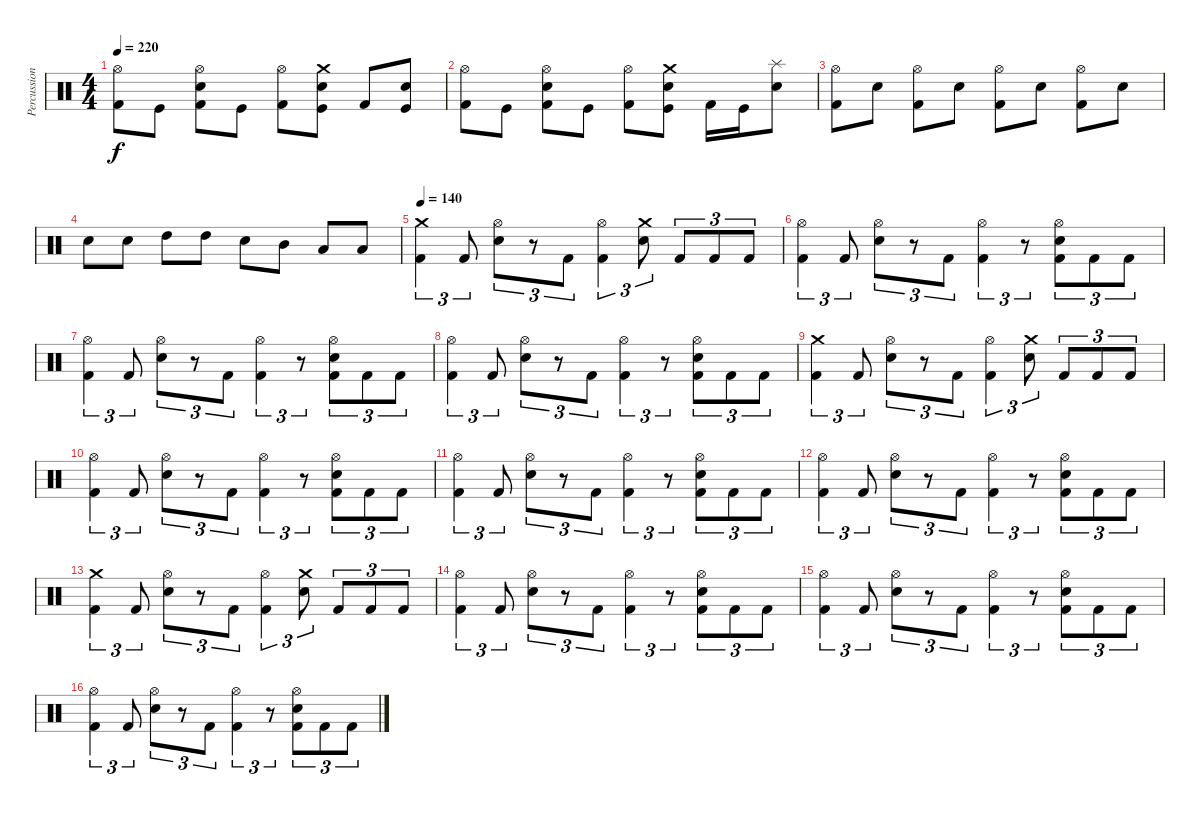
\track ("Percussions" "Percussion") {instrument percussion}
\staff {score}
\articulation defaults
\ts (4 4)
\tempo 220
\clef neutral
\ks c
("Hi-Hat (open)" "Kick (hit) 2").8{dy f} "Kick (hit)".8 ("Hi-Hat (open)" "Electric Snare (hit)" "Kick (hit) 2").8 "Kick (hit)".8 ("Hi-Hat (open)" "Kick (hit) 2").8 ("Crash medium (hit)" "Electric Snare (hit)" "Kick (hit)").8 "Kick (hit) 2".8 ("Electric Snare (hit)" "Kick (hit)").8 |
("Hi-Hat (open)" "Kick (hit) 2").8 "Kick (hit)".8 ("Hi-Hat (open)" "Electric Snare (hit)" "Kick (hit) 2").8 "Kick (hit)".8 ("Hi-Hat (open)" "Kick (hit) 2").8 ("Crash medium (hit)" "Electric Snare (hit)" "Kick (hit)").8 "Kick (hit) 2".16 "Kick (hit)".16 ("Splash (hit)" "Electric Snare (hit)").8 |
("Hi-Hat (open)" "Kick (hit) 2").8 "Electric Snare (hit)".8 ("Hi-Hat (open)" "Kick (hit) 2").8 "Electric Snare (hit)".8 ("Hi-Hat (open)" "Kick (hit) 2").8 "Electric Snare (hit)".8 ("Hi-Hat (open)" "Kick (hit) 2").8 "Electric Snare (hit)".8 |
"Electric Snare (hit)".8 "Electric Snare (hit)".8 "High Tom (hit)".8 "High Tom (hit)".8 "Electric Snare (hit)".8 "Mid Tom (hit)".8 "Low Tom (hit)".8 "Low Tom (hit)".8 |
\tempo 140
("Crash medium (hit)" "Kick (hit) 2").4{tu (3 2)} "Kick (hit) 2".8{tu (3 2)} ("Hi-Hat (open)" "Electric Snare (hit)").8{tu (3 2)} r.8{tu (3 2)} "Kick (hit) 2".8{tu (3 2)} ("Hi-Hat (open)" "Kick (hit) 2").4{tu (3 2)} ("Crash medium (hit)" "Electric Snare (hit)").8{tu (3 2)} "Kick (hit) 2".8{tu (3 2)} "Kick (hit) 2".8{tu (3 2)} "Kick (hit) 2".8{tu (3 2)} |
("Hi-Hat (open)" "Kick (hit) 2").4{tu (3 2)} "Kick (hit) 2".8{tu (3 2)} ("Hi-Hat (open)" "Electric Snare (hit)").8{tu (3 2)} r.8{tu (3 2)} "Kick (hit) 2".8{tu (3 2)} ("Hi-Hat (open)" "Kick (hit) 2").4{tu (3 2)} r.8{tu (3 2)} ("Hi-Hat (open)" "Electric Snare (hit)" "Kick (hit) 2").8{tu (3 2)} "Kick (hit) 2".8{tu (3 2)} "Kick (hit) 2".8{tu (3 2)} |
("Hi-Hat (open)" "Kick (hit) 2").4{tu (3 2)} "Kick (hit) 2".8{tu (3 2)} ("Hi-Hat (open)" "Electric Snare (hit)").8{tu (3 2)} r.8{tu (3 2)} "Kick (hit) 2".8{tu (3 2)} ("Hi-Hat (open)" "Kick (hit) 2").4{tu (3 2)} r.8{tu (3 2)} ("Hi-Hat (open)" "Electric Snare (hit)" "Kick (hit) 2").8{tu (3 2)} "Kick (hit) 2".8{tu (3 2)} "Kick (hit) 2".8{tu (3 2)} |
("Hi-Hat (open)" "Kick (hit) 2").4{tu (3 2)} "Kick (hit) 2".8{tu (3 2)} ("Hi-Hat (open)" "Electric Snare (hit)").8{tu (3 2)} r.8{tu (3 2)} "Kick (hit) 2".8{tu (3 2)} ("Hi-Hat (open)" "Kick (hit) 2").4{tu (3 2)} r.8{tu (3 2)} ("Hi-Hat (open)" "Electric Snare (hit)" "Kick (hit) 2").8{tu (3 2)} "Kick (hit) 2".8{tu (3 2)} "Kick (hit) 2".8{tu (3 2)} |
("Crash medium (hit)" "Kick (hit) 2").4{tu (3 2)} "Kick (hit) 2".8{tu (3 2)} ("Hi-Hat (open)" "Electric Snare (hit)").8{tu (3 2)} r.8{tu (3 2)} "Kick (hit) 2".8{tu (3 2)} ("Hi-Hat (open)" "Kick (hit) 2").4{tu (3 2)} ("Crash medium (hit)" "Electric Snare (hit)").8{tu (3 2)} "Kick (hit) 2".8{tu (3 2)} "Kick (hit) 2".8{tu (3 2)} "Kick (hit) 2".8{tu (3 2)} |
("Hi-Hat (open)" "Kick (hit) 2").4{tu (3 2)} "Kick (hit) 2".8{tu (3 2)} ("Hi-Hat (open)" "Electric Snare (hit)").8{tu (3 2)} r.8{tu (3 2)} "Kick (hit) 2".8{tu (3 2)} ("Hi-Hat (open)" "Kick (hit) 2").4{tu (3 2)} r.8{tu (3 2)} ("Hi-Hat (open)" "Electric Snare (hit)" "Kick (hit) 2").8{tu (3 2)} "Kick (hit) 2".8{tu (3 2)} "Kick (hit) 2".8{tu (3 2)} |
("Hi-Hat (open)" "Kick (hit) 2").4{tu (3 2)} "Kick (hit) 2".8{tu (3 2)} ("Hi-Hat (open)" "Electric Snare (hit)").8{tu (3 2)} r.8{tu (3 2)} "Kick (hit) 2".8{tu (3 2)} ("Hi-Hat (open)" "Kick (hit) 2").4{tu (3 2)} r.8{tu (3 2)} ("Hi-Hat (open)" "Electric Snare (hit)" "Kick (hit) 2").8{tu (3 2)} "Kick (hit) 2".8{tu (3 2)} "Kick (hit) 2".8{tu (3 2)} |
("Hi-Hat (open)" "Kick (hit) 2").4{tu (3 2)} "Kick (hit) 2".8{tu (3 2)} ("Hi-Hat (open)" "Electric Snare (hit)").8{tu (3 2)} r.8{tu (3 2)} "Kick (hit) 2".8{tu (3 2)} ("Hi-Hat (open)" "Kick (hit) 2").4{tu (3 2)} r.8{tu (3 2)} ("Hi-Hat (open)" "Electric Snare (hit)" "Kick (hit) 2").8{tu (3 2)} "Kick (hit) 2".8{tu (3 2)} "Kick (hit) 2".8{tu (3 2)} |
("Crash medium (hit)" "Kick (hit) 2").4{tu (3 2)} "Kick (hit) 2".8{tu (3 2)} ("Hi-Hat (open)" "Electric Snare (hit)").8{tu (3 2)} r.8{tu (3 2)} "Kick (hit) 2".8{tu (3 2)} ("Hi-Hat (open)" "Kick (hit) 2").4{tu (3 2)} ("Crash medium (hit)" "Electric Snare (hit)").8{tu (3 2)} "Kick (hit) 2".8{tu (3 2)} "Kick (hit) 2".8{tu (3 2)} "Kick (hit) 2".8{tu (3 2)} |
("Hi-Hat (open)" "Kick (hit) 2").4{tu (3 2)} "Kick (hit) 2".8{tu (3 2)} ("Hi-Hat (open)" "Electric Snare (hit)").8{tu (3 2)} r.8{tu (3 2)} "Kick (hit) 2".8{tu (3 2)} ("Hi-Hat (open)" "Kick (hit) 2").4{tu (3 2)} r.8{tu (3 2)} ("Hi-Hat (open)" "Electric Snare (hit)" "Kick (hit) 2").8{tu (3 2)} "Kick (hit) 2".8{tu (3 2)} "Kick (hit) 2".8{tu (3 2)} |
("Hi-Hat (open)" "Kick (hit) 2").4{tu (3 2)} "Kick (hit) 2".8{tu (3 2)} ("Hi-Hat (open)" "Electric Snare (hit)").8{tu (3 2)} r.8{tu (3 2)} "Kick (hit) 2".8{tu (3 2)} ("Hi-Hat (open)" "Kick (hit) 2").4{tu (3 2)} r.8{tu (3 2)} ("Hi-Hat (open)" "Electric Snare (hit)" "Kick (hit) 2").8{tu (3 2)} "Kick (hit) 2".8{tu (3 2)} "Kick (hit) 2".8{tu (3 2)} |
("Hi-Hat (open)" "Kick (hit) 2").4{tu (3 2)} "Kick (hit) 2".8{tu (3 2)} ("Hi-Hat (open)" "Electric Snare (hit)").8{tu (3 2)} r.8{tu (3 2)} "Kick (hit) 2".8{tu (3 2)} ("Hi-Hat (open)" "Kick (hit) 2").4{tu (3 2)} r.8{tu (3 2)} ("Hi-Hat (open)" "Electric Snare (hit)" "Kick (hit) 2").8{tu (3 2)} "Kick (hit) 2".8{tu (3 2)} "Kick (hit) 2".8{tu (3 2)}
